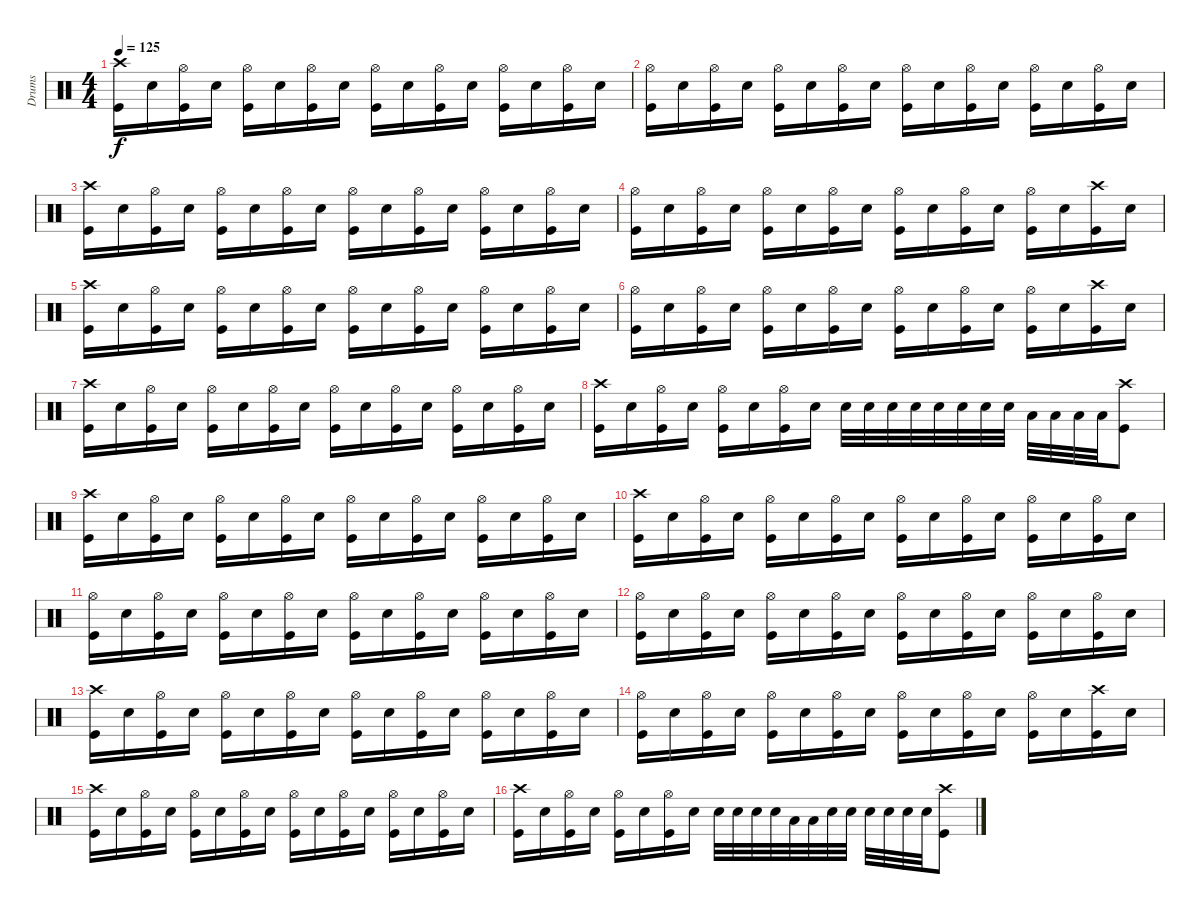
\track ("Drums" "Drums") {instrument percussion}
\staff {score}
\articulation defaults
\ts (4 4)
\tempo 125
\clef neutral
\ks c
("Crash high (hit)" "Kick (hit)").16{dy f} "Electric Snare (hit)".16 ("Hi-Hat (open)" "Kick (hit)").16 "Electric Snare (hit)".16 ("Hi-Hat (open)" "Kick (hit)").16 "Electric Snare (hit)".16 ("Hi-Hat (open)" "Kick (hit)").16 "Electric Snare (hit)".16 ("Hi-Hat (open)" "Kick (hit)").16 "Electric Snare (hit)".16 ("Hi-Hat (open)" "Kick (hit)").16 "Electric Snare (hit)".16 ("Hi-Hat (open)" "Kick (hit)").16 "Electric Snare (hit)".16 ("Hi-Hat (open)" "Kick (hit)").16 "Electric Snare (hit)".16 |
("Hi-Hat (open)" "Kick (hit)").16 "Electric Snare (hit)".16 ("Hi-Hat (open)" "Kick (hit)").16 "Electric Snare (hit)".16 ("Hi-Hat (open)" "Kick (hit)").16 "Electric Snare (hit)".16 ("Hi-Hat (open)" "Kick (hit)").16 "Electric Snare (hit)".16 ("Hi-Hat (open)" "Kick (hit)").16 "Electric Snare (hit)".16 ("Hi-Hat (open)" "Kick (hit)").16 "Electric Snare (hit)".16 ("Hi-Hat (open)" "Kick (hit)").16 "Electric Snare (hit)".16 ("Hi-Hat (open)" "Kick (hit)").16 "Electric Snare (hit)".16 |
("Crash high (hit)" "Kick (hit)").16 "Electric Snare (hit)".16 ("Hi-Hat (open)" "Kick (hit)").16 "Electric Snare (hit)".16 ("Hi-Hat (open)" "Kick (hit)").16 "Electric Snare (hit)".16 ("Hi-Hat (open)" "Kick (hit)").16 "Electric Snare (hit)".16 ("Hi-Hat (open)" "Kick (hit)").16 "Electric Snare (hit)".16 ("Hi-Hat (open)" "Kick (hit)").16 "Electric Snare (hit)".16 ("Hi-Hat (open)" "Kick (hit)").16 "Electric Snare (hit)".16 ("Hi-Hat (open)" "Kick (hit)").16 "Electric Snare (hit)".16 |
("Hi-Hat (open)" "Kick (hit)").16 "Electric Snare (hit)".16 ("Hi-Hat (open)" "Kick (hit)").16 "Electric Snare (hit)".16 ("Hi-Hat (open)" "Kick (hit)").16 "Electric Snare (hit)".16 ("Hi-Hat (open)" "Kick (hit)").16 "Electric Snare (hit)".16 ("Hi-Hat (open)" "Kick (hit)").16 "Electric Snare (hit)".16 ("Hi-Hat (open)" "Kick (hit)").16 "Electric Snare (hit)".16 ("Hi-Hat (open)" "Kick (hit)").16 "Electric Snare (hit)".16 ("Crash high (hit)" "Kick (hit)").16 "Electric Snare (hit)".16 |
("Crash high (hit)" "Kick (hit)").16 "Electric Snare (hit)".16 ("Hi-Hat (open)" "Kick (hit)").16 "Electric Snare (hit)".16 ("Hi-Hat (open)" "Kick (hit)").16 "Electric Snare (hit)".16 ("Hi-Hat (open)" "Kick (hit)").16 "Electric Snare (hit)".16 ("Hi-Hat (open)" "Kick (hit)").16 "Electric Snare (hit)".16 ("Hi-Hat (open)" "Kick (hit)").16 "Electric Snare (hit)".16 ("Hi-Hat (open)" "Kick (hit)").16 "Electric Snare (hit)".16 ("Hi-Hat (open)" "Kick (hit)").16 "Electric Snare (hit)".16 |
("Hi-Hat (open)" "Kick (hit)").16 "Electric Snare (hit)".16 ("Hi-Hat (open)" "Kick (hit)").16 "Electric Snare (hit)".16 ("Hi-Hat (open)" "Kick (hit)").16 "Electric Snare (hit)".16 ("Hi-Hat (open)" "Kick (hit)").16 "Electric Snare (hit)".16 ("Hi-Hat (open)" "Kick (hit)").16 "Electric Snare (hit)".16 ("Hi-Hat (open)" "Kick (hit)").16 "Electric Snare (hit)".16 ("Hi-Hat (open)" "Kick (hit)").16 "Electric Snare (hit)".16 ("Crash high (hit)" "Kick (hit)").16 "Electric Snare (hit)".16 |
("Crash high (hit)" "Kick (hit)").16 "Electric Snare (hit)".16 ("Hi-Hat (open)" "Kick (hit)").16 "Electric Snare (hit)".16 ("Hi-Hat (open)" "Kick (hit)").16 "Electric Snare (hit)".16 ("Hi-Hat (open)" "Kick (hit)").16 "Electric Snare (hit)".16 ("Hi-Hat (open)" "Kick (hit)").16 "Electric Snare (hit)".16 ("Hi-Hat (open)" "Kick (hit)").16 "Electric Snare (hit)".16 ("Hi-Hat (open)" "Kick (hit)").16 "Electric Snare (hit)".16 ("Hi-Hat (open)" "Kick (hit)").16 "Electric Snare (hit)".16 |
("Crash high (hit)" "Kick (hit)").16 "Electric Snare (hit)".16 ("Hi-Hat (open)" "Kick (hit)").16 "Electric Snare (hit)".16 ("Hi-Hat (open)" "Kick (hit)").16 "Electric Snare (hit)".16 ("Hi-Hat (open)" "Kick (hit)").16 "Electric Snare (hit)".16 "Electric Snare (hit)".32 "Electric Snare (hit)".32 "Electric Snare (hit)".32 "Electric Snare (hit)".32 "Electric Snare (hit)".32 "Electric Snare (hit)".32 "Electric Snare (hit)".32 "Electric Snare (hit)".32 "Low Tom (hit)".32 "Low Tom (hit)".32 "Low Tom (hit)".32 "Low Tom (hit)".32 ("Crash high (hit)" "Kick (hit)").8 |
("Crash high (hit)" "Kick (hit)").16 "Electric Snare (hit)".16 ("Hi-Hat (open)" "Kick (hit)").16 "Electric Snare (hit)".16 ("Hi-Hat (open)" "Kick (hit)").16 "Electric Snare (hit)".16 ("Hi-Hat (open)" "Kick (hit)").16 "Electric Snare (hit)".16 ("Hi-Hat (open)" "Kick (hit)").16 "Electric Snare (hit)".16 ("Hi-Hat (open)" "Kick (hit)").16 "Electric Snare (hit)".16 ("Hi-Hat (open)" "Kick (hit)").16 "Electric Snare (hit)".16 ("Hi-Hat (open)" "Kick (hit)").16 "Electric Snare (hit)".16 |
("Crash high (hit)" "Kick (hit)").16 "Electric Snare (hit)".16 ("Hi-Hat (open)" "Kick (hit)").16 "Electric Snare (hit)".16 ("Hi-Hat (open)" "Kick (hit)").16 "Electric Snare (hit)".16 ("Hi-Hat (open)" "Kick (hit)").16 "Electric Snare (hit)".16 ("Hi-Hat (open)" "Kick (hit)").16 "Electric Snare (hit)".16 ("Hi-Hat (open)" "Kick (hit)").16 "Electric Snare (hit)".16 ("Hi-Hat (open)" "Kick (hit)").16 "Electric Snare (hit)".16 ("Hi-Hat (open)" "Kick (hit)").16 "Electric Snare (hit)".16 |
("Hi-Hat (open)" "Kick (hit)").16 "Electric Snare (hit)".16 ("Hi-Hat (open)" "Kick (hit)").16 "Electric Snare (hit)".16 ("Hi-Hat (open)" "Kick (hit)").16 "Electric Snare (hit)".16 ("Hi-Hat (open)" "Kick (hit)").16 "Electric Snare (hit)".16 ("Hi-Hat (open)" "Kick (hit)").16 "Electric Snare (hit)".16 ("Hi-Hat (open)" "Kick (hit)").16 "Electric Snare (hit)".16 ("Hi-Hat (open)" "Kick (hit)").16 "Electric Snare (hit)".16 ("Hi-Hat (open)" "Kick (hit)").16 "Electric Snare (hit)".16 |
("Hi-Hat (open)" "Kick (hit)").16 "Electric Snare (hit)".16 ("Hi-Hat (open)" "Kick (hit)").16 "Electric Snare (hit)".16 ("Hi-Hat (open)" "Kick (hit)").16 "Electric Snare (hit)".16 ("Hi-Hat (open)" "Kick (hit)").16 "Electric Snare (hit)".16 ("Hi-Hat (open)" "Kick (hit)").16 "Electric Snare (hit)".16 ("Hi-Hat (open)" "Kick (hit)").16 "Electric Snare (hit)".16 ("Hi-Hat (open)" "Kick (hit)").16 "Electric Snare (hit)".16 ("Hi-Hat (open)" "Kick (hit)").16 "Electric Snare (hit)".16 |
("Crash high (hit)" "Kick (hit)").16 "Electric Snare (hit)".16 ("Hi-Hat (open)" "Kick (hit)").16 "Electric Snare (hit)".16 ("Hi-Hat (open)" "Kick (hit)").16 "Electric Snare (hit)".16 ("Hi-Hat (open)" "Kick (hit)").16 "Electric Snare (hit)".16 ("Hi-Hat (open)" "Kick (hit)").16 "Electric Snare (hit)".16 ("Hi-Hat (open)" "Kick (hit)").16 "Electric Snare (hit)".16 ("Hi-Hat (open)" "Kick (hit)").16 "Electric Snare (hit)".16 ("Hi-Hat (open)" "Kick (hit)").16 "Electric Snare (hit)".16 |
("Hi-Hat (open)" "Kick (hit)").16 "Electric Snare (hit)".16 ("Hi-Hat (open)" "Kick (hit)").16 "Electric Snare (hit)".16 ("Hi-Hat (open)" "Kick (hit)").16 "Electric Snare (hit)".16 ("Hi-Hat (open)" "Kick (hit)").16 "Electric Snare (hit)".16 ("Hi-Hat (open)" "Kick (hit)").16 "Electric Snare (hit)".16 ("Hi-Hat (open)" "Kick (hit)").16 "Electric Snare (hit)".16 ("Hi-Hat (open)" "Kick (hit)").16 "Electric Snare (hit)".16 ("Crash high (hit)" "Kick (hit)").16 "Electric Snare (hit)".16 |
("Crash high (hit)" "Kick (hit)").16 "Electric Snare (hit)".16 ("Hi-Hat (open)" "Kick (hit)").16 "Electric Snare (hit)".16 ("Hi-Hat (open)" "Kick (hit)").16 "Electric Snare (hit)".16 ("Hi-Hat (open)" "Kick (hit)").16 "Electric Snare (hit)".16 ("Hi-Hat (open)" "Kick (hit)").16 "Electric Snare (hit)".16 ("Hi-Hat (open)" "Kick (hit)").16 "Electric Snare (hit)".16 ("Hi-Hat (open)" "Kick (hit)").16 "Electric Snare (hit)".16 ("Hi-Hat (open)" "Kick (hit)").16 "Electric Snare (hit)".16 |
("Crash high (hit)" "Kick (hit)").16 "Electric Snare (hit)".16 ("Hi-Hat (open)" "Kick (hit)").16 "Electric Snare (hit)".16 ("Hi-Hat (open)" "Kick (hit)").16 "Electric Snare (hit)".16 ("Hi-Hat (open)" "Kick (hit)").16 "Electric Snare (hit)".16 "Electric Snare (hit)".32 "Electric Snare (hit)".32 "Electric Snare (hit)".32 "Electric Snare (hit)".32 "Low Tom (hit)".32 "Low Tom (hit)".32 "Electric Snare (hit)".32 "Electric Snare (hit)".32 "Electric Snare (hit)".32 "Electric Snare (hit)".32 "Electric Snare (hit)".32 "Electric Snare (hit)".32 ("Crash high (hit)" "Kick (hit)").8
